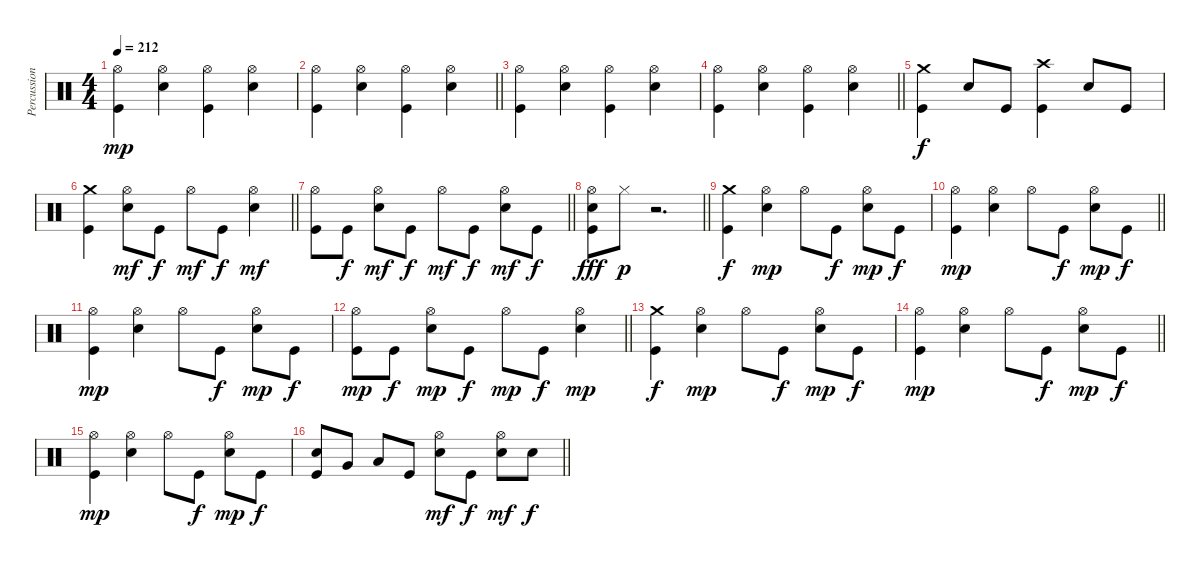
\track ("Percussion" "Percussion") {instrument percussion}
\staff {score}
\articulation defaults
\ts (4 4)
\tempo 212
\clef neutral
\ks c
("Hi-Hat (open)" "Kick (hit)").4{dy mp} ("Hi-Hat (open)" "Snare (hit) 2").4 ("Hi-Hat (open)" "Kick (hit)").4 ("Hi-Hat (open)" "Snare (hit) 2").4 |
\barLineRight lightlight
("Hi-Hat (open)" "Kick (hit)").4 ("Hi-Hat (open)" "Snare (hit) 2").4 ("Hi-Hat (open)" "Kick (hit)").4 ("Hi-Hat (open)" "Snare (hit) 2").4 |
("Hi-Hat (open)" "Kick (hit)").4 ("Hi-Hat (open)" "Snare (hit) 2").4 ("Hi-Hat (open)" "Kick (hit)").4 ("Hi-Hat (open)" "Snare (hit) 2").4 |
\barLineRight lightlight
("Hi-Hat (open)" "Kick (hit)").4 ("Hi-Hat (open)" "Snare (hit) 2").4 ("Hi-Hat (open)" "Kick (hit)").4 ("Hi-Hat (open)" "Snare (hit) 2").4 |
("Crash medium (hit)" "Kick (hit)").4{dy f} "Snare (hit) 2".8 "Kick (hit)".8 ("Crash high (hit)" "Kick (hit)").4 "Snare (hit) 2".8 "Kick (hit)".8 |
\barLineRight lightlight
("Crash medium (hit)" "Kick (hit)").4 ("Hi-Hat (open)" "Snare (hit) 2").8{dy mf} "Kick (hit)".8{dy f} "Hi-Hat (open)".8{dy mf} "Kick (hit)".8{dy f} ("Hi-Hat (open)" "Snare (hit) 2").4{dy mf} |
\barLineRight lightlight
("Hi-Hat (open)" "Kick (hit)").8 "Kick (hit)".8{dy f} ("Hi-Hat (open)" "Snare (hit) 2").8{dy mf} "Kick (hit)".8{dy f} "Hi-Hat (open)".8{dy mf} "Kick (hit)".8{dy f} ("Hi-Hat (open)" "Snare (hit) 2").8{dy mf} "Kick (hit)".8{dy f} |
\barLineRight lightlight
("Hi-Hat (open)" "Snare (hit) 2" "Kick (hit)").8{dy fff} "Hi-Hat (closed)".8{dy p} r.2{d} |
("Crash medium (hit)" "Kick (hit)").4{dy f} ("Hi-Hat (open)" "Snare (hit) 2").4{dy mp} "Hi-Hat (open)".8 "Kick (hit)".8{dy f} ("Hi-Hat (open)" "Snare (hit) 2").8{dy mp} "Kick (hit)".8{dy f} |
\barLineRight lightlight
("Hi-Hat (open)" "Kick (hit)").4{dy mp} ("Hi-Hat (open)" "Snare (hit) 2").4 "Hi-Hat (open)".8 "Kick (hit)".8{dy f} ("Hi-Hat (open)" "Snare (hit) 2").8{dy mp} "Kick (hit)".8{dy f} |
("Hi-Hat (open)" "Kick (hit)").4{dy mp} ("Hi-Hat (open)" "Snare (hit) 2").4 "Hi-Hat (open)".8 "Kick (hit)".8{dy f} ("Hi-Hat (open)" "Snare (hit) 2").8{dy mp} "Kick (hit)".8{dy f} |
\barLineRight lightlight
("Hi-Hat (open)" "Kick (hit)").8{dy mp} "Kick (hit)".8{dy f} ("Hi-Hat (open)" "Snare (hit) 2").8{dy mp} "Kick (hit)".8{dy f} "Hi-Hat (open)".8{dy mp} "Kick (hit)".8{dy f} ("Hi-Hat (open)" "Snare (hit) 2").4{dy mp} |
("Crash medium (hit)" "Kick (hit)").4{dy f} ("Hi-Hat (open)" "Snare (hit) 2").4{dy mp} "Hi-Hat (open)".8 "Kick (hit)".8{dy f} ("Hi-Hat (open)" "Snare (hit) 2").8{dy mp} "Kick (hit)".8{dy f} |
\barLineRight lightlight
("Hi-Hat (open)" "Kick (hit)").4{dy mp} ("Hi-Hat (open)" "Snare (hit) 2").4 "Hi-Hat (open)".8 "Kick (hit)".8{dy f} ("Hi-Hat (open)" "Snare (hit) 2").8{dy mp} "Kick (hit)".8{dy f} |
("Hi-Hat (open)" "Kick (hit)").4{dy mp} ("Hi-Hat (open)" "Snare (hit) 2").4 "Hi-Hat (open)".8 "Kick (hit)".8{dy f} ("Hi-Hat (open)" "Snare (hit) 2").8{dy mp} "Kick (hit)".8{dy f} |
\barLineRight lightlight
("Snare (hit) 2" "Kick (hit)").8 "Very Low Tom (hit)".8 "Low Floor Tom (hit)".8 "Kick (hit)".8 ("Hi-Hat (open)" "Snare (hit) 2").8{dy mf} "Kick (hit)".8{dy f} ("Hi-Hat (open)" "Snare (hit) 2").8{dy mf} "Snare (hit) 2".8{dy f}
